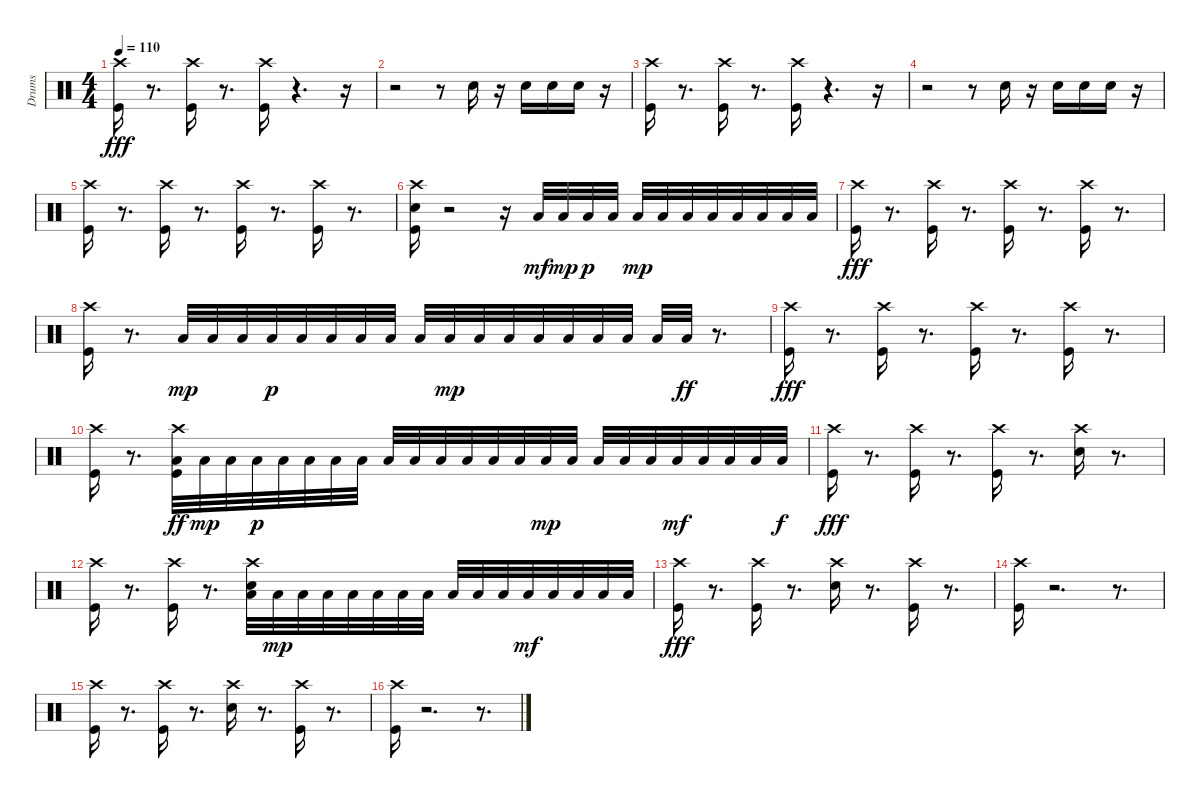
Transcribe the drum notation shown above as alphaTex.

\track ("Drums" "Drums") {instrument percussion}
\staff {score}
\articulation defaults
\ts (4 4)
\tempo 110
\clef neutral
\ks c
("Crash high (hit)" "Kick (hit)").16{dy fff} r.8{d} ("Crash high (hit)" "Kick (hit)").16 r.8{d} ("Crash high (hit)" "Kick (hit)").16 r.4{d} r.16 |
r.2 r.8 "Snare (hit) 2".16 r.16 "Snare (hit) 2".16 "Snare (hit) 2".16 "Snare (hit) 2".16 r.16 |
("Kick (hit)" "Crash high (hit)").16 r.8{d} ("Kick (hit)" "Crash high (hit)").16 r.8{d} ("Kick (hit)" "Crash high (hit)").16 r.4{d} r.16 |
r.2 r.8 "Snare (hit) 2".16 r.16 "Snare (hit) 2".16 "Snare (hit) 2".16 "Snare (hit) 2".16 r.16 |
("Crash high (hit)" "Kick (hit)").16 r.8{d} ("Crash high (hit)" "Kick (hit)").16 r.8{d} ("Crash high (hit)" "Kick (hit)").16 r.8{d} ("Crash high (hit)" "Kick (hit)").16 r.8{d} |
("Crash high (hit)" "Snare (hit) 2" "Kick (hit)").16 r.2 r.16 "Low Floor Tom (hit)".32{dy mf} "Low Floor Tom (hit)".32{dy mp} "Low Floor Tom (hit)".32{dy p} "Low Floor Tom (hit)".32 "Low Floor Tom (hit)".32{dy mp} "Low Floor Tom (hit)".32 "Low Floor Tom (hit)".32 "Low Floor Tom (hit)".32 "Low Floor Tom (hit)".32 "Low Floor Tom (hit)".32 "Low Floor Tom (hit)".32 "Low Floor Tom (hit)".32 |
("Crash high (hit)" "Kick (hit)").16{dy fff} r.8{d} ("Crash high (hit)" "Kick (hit)").16 r.8{d} ("Crash high (hit)" "Kick (hit)").16 r.8{d} ("Crash high (hit)" "Kick (hit)").16 r.8{d} |
("Crash high (hit)" "Kick (hit)").16 r.8{d} "Low Floor Tom (hit)".32{dy mp} "Low Floor Tom (hit)".32 "Low Floor Tom (hit)".32 "Low Floor Tom (hit)".32{dy p} "Low Floor Tom (hit)".32 "Low Floor Tom (hit)".32 "Low Floor Tom (hit)".32 "Low Floor Tom (hit)".32 "Low Floor Tom (hit)".32 "Low Floor Tom (hit)".32{dy mp} "Low Floor Tom (hit)".32 "Low Floor Tom (hit)".32 "Low Floor Tom (hit)".32 "Low Floor Tom (hit)".32 "Low Floor Tom (hit)".32 "Low Floor Tom (hit)".32 "Low Floor Tom (hit)".32 "Low Floor Tom (hit)".32{dy ff} r.8{d} |
("Crash high (hit)" "Kick (hit)").16{dy fff} r.8{d} ("Crash high (hit)" "Kick (hit)").16 r.8{d} ("Crash high (hit)" "Kick (hit)").16 r.8{d} ("Crash high (hit)" "Kick (hit)").16 r.8{d} |
("Crash high (hit)" "Kick (hit)").16 r.8{d} ("Low Floor Tom (hit)" "Crash high (hit)" "Kick (hit)").32{dy ff} "Low Floor Tom (hit)".32{dy mp} "Low Floor Tom (hit)".32 "Low Floor Tom (hit)".32{dy p} "Low Floor Tom (hit)".32 "Low Floor Tom (hit)".32 "Low Floor Tom (hit)".32 "Low Floor Tom (hit)".32 "Low Floor Tom (hit)".32 "Low Floor Tom (hit)".32 "Low Floor Tom (hit)".32 "Low Floor Tom (hit)".32 "Low Floor Tom (hit)".32 "Low Floor Tom (hit)".32 "Low Floor Tom (hit)".32{dy mp} "Low Floor Tom (hit)".32 "Low Floor Tom (hit)".32 "Low Floor Tom (hit)".32 "Low Floor Tom (hit)".32 "Low Floor Tom (hit)".32{dy mf} "Low Floor Tom (hit)".32 "Low Floor Tom (hit)".32 "Low Floor Tom (hit)".32 "Low Floor Tom (hit)".32{dy f} |
("Crash high (hit)" "Kick (hit)").16{dy fff} r.8{d} ("Crash high (hit)" "Kick (hit)").16 r.8{d} ("Crash high (hit)" "Kick (hit)").16 r.8{d} ("Crash high (hit)" "Snare (hit) 2").16 r.8{d} |
("Crash high (hit)" "Kick (hit)").16 r.8{d} ("Crash high (hit)" "Kick (hit)").16 r.8{d} ("Snare (hit) 2" "Low Floor Tom (hit)" "Crash high (hit)").32 "Low Floor Tom (hit)".32{dy mp} "Low Floor Tom (hit)".32 "Low Floor Tom (hit)".32 "Low Floor Tom (hit)".32 "Low Floor Tom (hit)".32 "Low Floor Tom (hit)".32 "Low Floor Tom (hit)".32 "Low Floor Tom (hit)".32 "Low Floor Tom (hit)".32 "Low Floor Tom (hit)".32 "Low Floor Tom (hit)".32{dy mf} "Low Floor Tom (hit)".32 "Low Floor Tom (hit)".32 "Low Floor Tom (hit)".32 "Low Floor Tom (hit)".32 |
("Crash high (hit)" "Kick (hit)").16{dy fff} r.8{d} ("Crash high (hit)" "Kick (hit)").16 r.8{d} ("Crash high (hit)" "Snare (hit) 2").16 r.8{d} ("Crash high (hit)" "Kick (hit)").16 r.8{d} |
("Crash high (hit)" "Kick (hit)").16 r.2{d} r.8{d} |
("Crash high (hit)" "Kick (hit)").16 r.8{d} ("Crash high (hit)" "Kick (hit)").16 r.8{d} ("Snare (hit) 2" "Crash high (hit)").16 r.8{d} ("Crash high (hit)" "Kick (hit)").16 r.8{d} |
("Crash high (hit)" "Kick (hit)").16 r.2{d} r.8{d}
